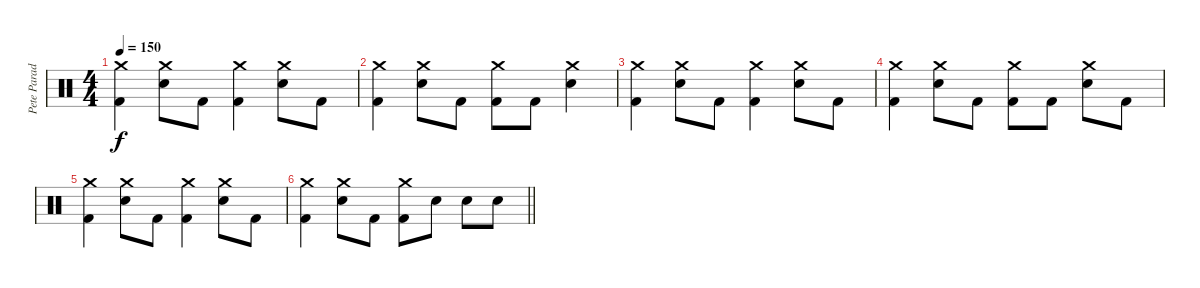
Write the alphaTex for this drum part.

\track ("Pete Parada - Drums" "Pete Parad") {instrument percussion}
\staff {score}
\articulation defaults
\ts (4 4)
\tempo 150
\clef neutral
\ks c
("Crash medium (hit)" "Kick (hit) 2").4{dy f} ("Crash medium (hit)" "Electric Snare (hit)").8 "Kick (hit) 2".8 ("Crash medium (hit)" "Kick (hit) 2").4 ("Crash medium (hit)" "Electric Snare (hit)").8 "Kick (hit) 2".8 |
("Crash medium (hit)" "Kick (hit) 2").4 ("Crash medium (hit)" "Electric Snare (hit)").8 "Kick (hit) 2".8 ("Crash medium (hit)" "Kick (hit) 2").8 "Kick (hit) 2".8 ("Crash medium (hit)" "Electric Snare (hit)").4 |
("Crash medium (hit)" "Kick (hit) 2").4 ("Crash medium (hit)" "Electric Snare (hit)").8 "Kick (hit) 2".8 ("Crash medium (hit)" "Kick (hit) 2").4 ("Crash medium (hit)" "Electric Snare (hit)").8 "Kick (hit) 2".8 |
("Crash medium (hit)" "Kick (hit) 2").4 ("Crash medium (hit)" "Electric Snare (hit)").8 "Kick (hit) 2".8 ("Crash medium (hit)" "Kick (hit) 2").8 "Kick (hit) 2".8 ("Crash medium (hit)" "Electric Snare (hit)").8 "Kick (hit) 2".8 |
("Crash medium (hit)" "Kick (hit) 2").4 ("Crash medium (hit)" "Electric Snare (hit)").8 "Kick (hit) 2".8 ("Crash medium (hit)" "Kick (hit) 2").4 ("Crash medium (hit)" "Electric Snare (hit)").8 "Kick (hit) 2".8 |
\barLineRight lightlight
("Crash medium (hit)" "Kick (hit) 2").4 ("Crash medium (hit)" "Electric Snare (hit)").8 "Kick (hit) 2".8 ("Crash medium (hit)" "Kick (hit) 2").8 "Electric Snare (hit)".8 "Electric Snare (hit)".8 "Electric Snare (hit)".8
